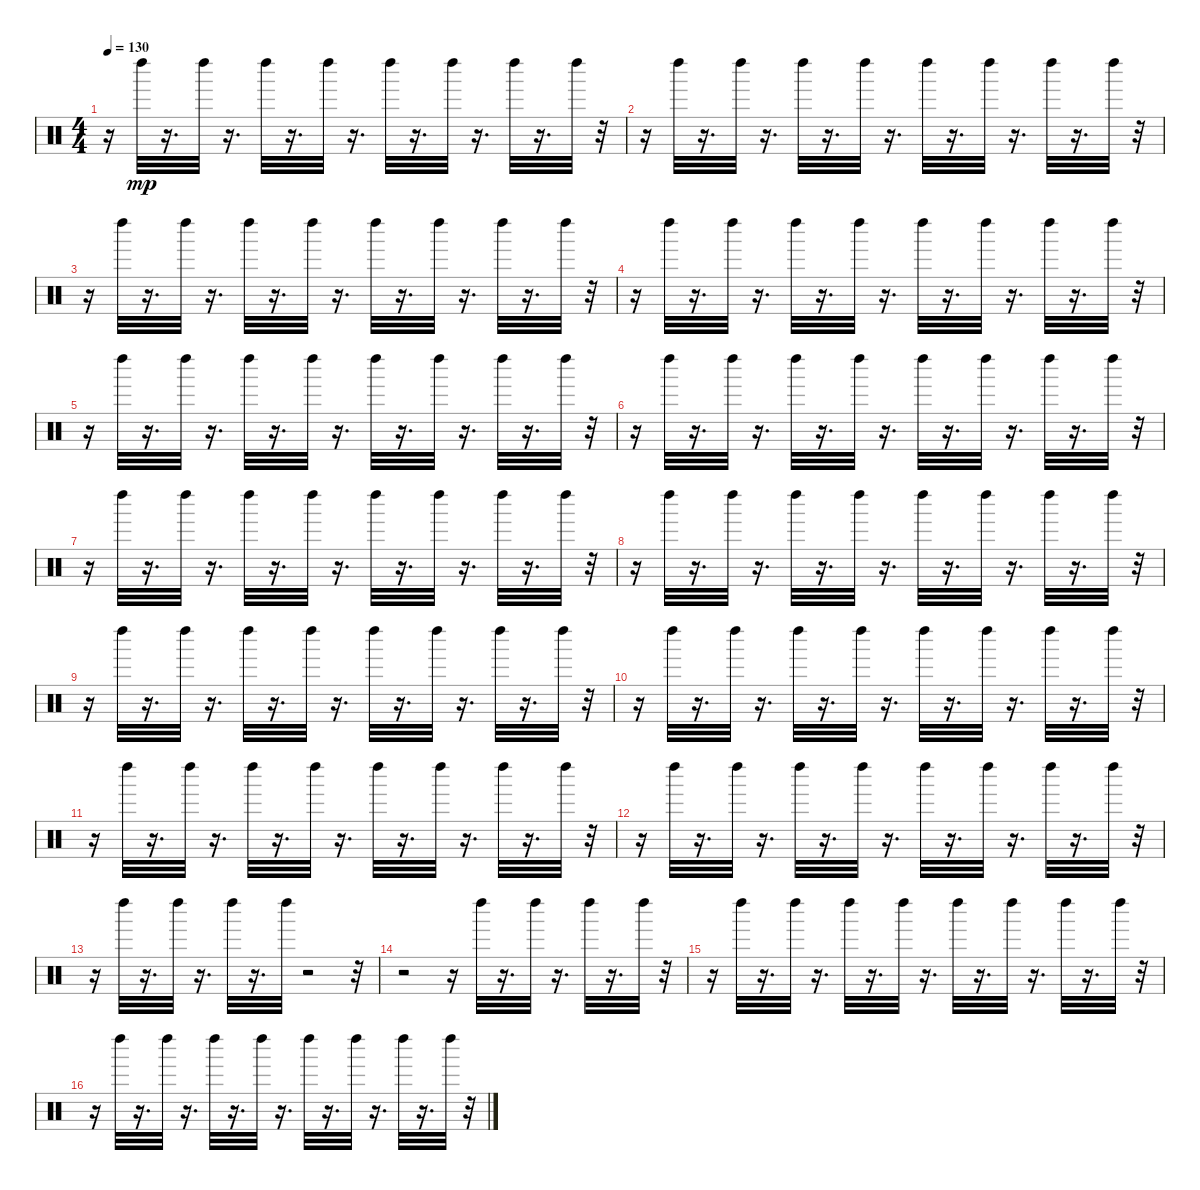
\track "" {instrument percussion}
\staff {score}
\articulation defaults
\ts (4 4)
\tempo 130
\clef neutral
\ks c
r.16{dy mp} "Left Maraca (hit)".32 r.16{d} "Left Maraca (hit)".32 r.16{d} "Left Maraca (hit)".32 r.16{d} "Left Maraca (hit)".32 r.16{d} "Left Maraca (hit)".32 r.16{d} "Left Maraca (hit)".32 r.16{d} "Left Maraca (hit)".32 r.16{d} "Left Maraca (hit)".32 r.32 |
r.16 "Left Maraca (hit)".32 r.16{d} "Left Maraca (hit)".32 r.16{d} "Left Maraca (hit)".32 r.16{d} "Left Maraca (hit)".32 r.16{d} "Left Maraca (hit)".32 r.16{d} "Left Maraca (hit)".32 r.16{d} "Left Maraca (hit)".32 r.16{d} "Left Maraca (hit)".32 r.32 |
r.16 "Left Maraca (hit)".32 r.16{d} "Left Maraca (hit)".32 r.16{d} "Left Maraca (hit)".32 r.16{d} "Left Maraca (hit)".32 r.16{d} "Left Maraca (hit)".32 r.16{d} "Left Maraca (hit)".32 r.16{d} "Left Maraca (hit)".32 r.16{d} "Left Maraca (hit)".32 r.32 |
r.16 "Left Maraca (hit)".32 r.16{d} "Left Maraca (hit)".32 r.16{d} "Left Maraca (hit)".32 r.16{d} "Left Maraca (hit)".32 r.16{d} "Left Maraca (hit)".32 r.16{d} "Left Maraca (hit)".32 r.16{d} "Left Maraca (hit)".32 r.16{d} "Left Maraca (hit)".32 r.32 |
r.16 "Left Maraca (hit)".32 r.16{d} "Left Maraca (hit)".32 r.16{d} "Left Maraca (hit)".32 r.16{d} "Left Maraca (hit)".32 r.16{d} "Left Maraca (hit)".32 r.16{d} "Left Maraca (hit)".32 r.16{d} "Left Maraca (hit)".32 r.16{d} "Left Maraca (hit)".32 r.32 |
r.16 "Left Maraca (hit)".32 r.16{d} "Left Maraca (hit)".32 r.16{d} "Left Maraca (hit)".32 r.16{d} "Left Maraca (hit)".32 r.16{d} "Left Maraca (hit)".32 r.16{d} "Left Maraca (hit)".32 r.16{d} "Left Maraca (hit)".32 r.16{d} "Left Maraca (hit)".32 r.32 |
r.16 "Left Maraca (hit)".32 r.16{d} "Left Maraca (hit)".32 r.16{d} "Left Maraca (hit)".32 r.16{d} "Left Maraca (hit)".32 r.16{d} "Left Maraca (hit)".32 r.16{d} "Left Maraca (hit)".32 r.16{d} "Left Maraca (hit)".32 r.16{d} "Left Maraca (hit)".32 r.32 |
r.16 "Left Maraca (hit)".32 r.16{d} "Left Maraca (hit)".32 r.16{d} "Left Maraca (hit)".32 r.16{d} "Left Maraca (hit)".32 r.16{d} "Left Maraca (hit)".32 r.16{d} "Left Maraca (hit)".32 r.16{d} "Left Maraca (hit)".32 r.16{d} "Left Maraca (hit)".32 r.32 |
r.16 "Left Maraca (hit)".32 r.16{d} "Left Maraca (hit)".32 r.16{d} "Left Maraca (hit)".32 r.16{d} "Left Maraca (hit)".32 r.16{d} "Left Maraca (hit)".32 r.16{d} "Left Maraca (hit)".32 r.16{d} "Left Maraca (hit)".32 r.16{d} "Left Maraca (hit)".32 r.32 |
r.16 "Left Maraca (hit)".32 r.16{d} "Left Maraca (hit)".32 r.16{d} "Left Maraca (hit)".32 r.16{d} "Left Maraca (hit)".32 r.16{d} "Left Maraca (hit)".32 r.16{d} "Left Maraca (hit)".32 r.16{d} "Left Maraca (hit)".32 r.16{d} "Left Maraca (hit)".32 r.32 |
r.16 "Left Maraca (hit)".32 r.16{d} "Left Maraca (hit)".32 r.16{d} "Left Maraca (hit)".32 r.16{d} "Left Maraca (hit)".32 r.16{d} "Left Maraca (hit)".32 r.16{d} "Left Maraca (hit)".32 r.16{d} "Left Maraca (hit)".32 r.16{d} "Left Maraca (hit)".32 r.32 |
r.16 "Left Maraca (hit)".32 r.16{d} "Left Maraca (hit)".32 r.16{d} "Left Maraca (hit)".32 r.16{d} "Left Maraca (hit)".32 r.16{d} "Left Maraca (hit)".32 r.16{d} "Left Maraca (hit)".32 r.16{d} "Left Maraca (hit)".32 r.16{d} "Left Maraca (hit)".32 r.32 |
r.16 "Left Maraca (hit)".32 r.16{d} "Left Maraca (hit)".32 r.16{d} "Left Maraca (hit)".32 r.16{d} "Left Maraca (hit)".32 r.2 r.32 |
r.2 r.16 "Left Maraca (hit)".32 r.16{d} "Left Maraca (hit)".32 r.16{d} "Left Maraca (hit)".32 r.16{d} "Left Maraca (hit)".32 r.32 |
r.16 "Left Maraca (hit)".32 r.16{d} "Left Maraca (hit)".32 r.16{d} "Left Maraca (hit)".32 r.16{d} "Left Maraca (hit)".32 r.16{d} "Left Maraca (hit)".32 r.16{d} "Left Maraca (hit)".32 r.16{d} "Left Maraca (hit)".32 r.16{d} "Left Maraca (hit)".32 r.32 |
r.16 "Left Maraca (hit)".32 r.16{d} "Left Maraca (hit)".32 r.16{d} "Left Maraca (hit)".32 r.16{d} "Left Maraca (hit)".32 r.16{d} "Left Maraca (hit)".32 r.16{d} "Left Maraca (hit)".32 r.16{d} "Left Maraca (hit)".32 r.16{d} "Left Maraca (hit)".32 r.32
